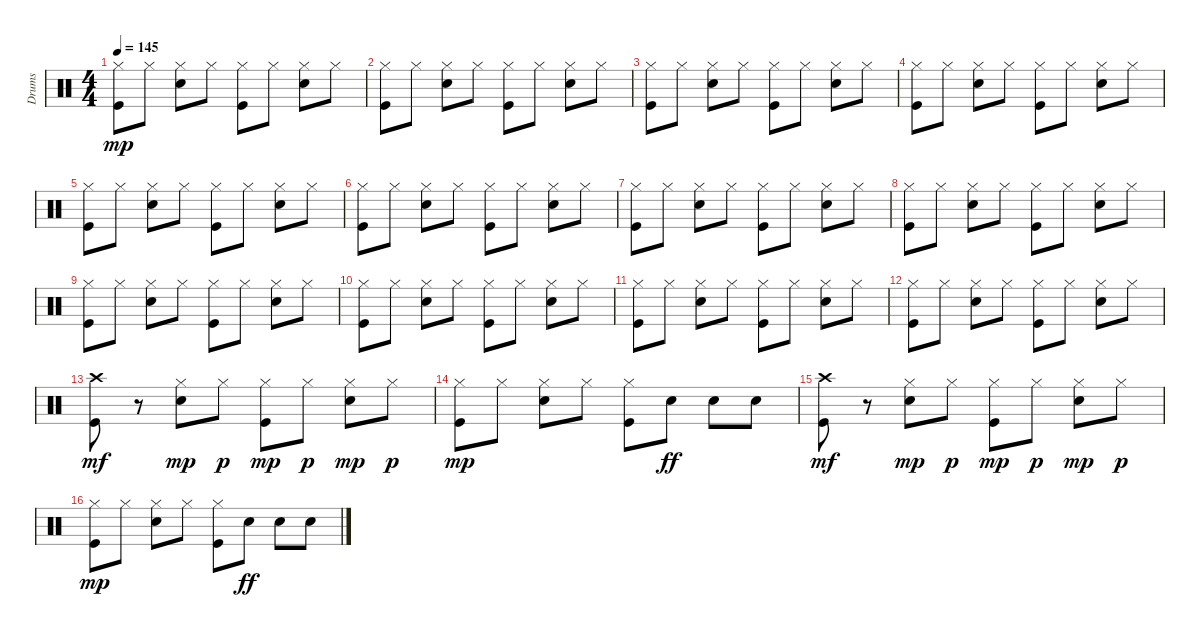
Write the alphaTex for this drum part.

\track ("Drums" "Drums") {instrument percussion}
\staff {score}
\articulation defaults
\ts (4 4)
\tempo 145
\clef neutral
\ks c
("Kick (hit)" "Hi-Hat (closed)").8{dy mp} "Hi-Hat (closed)".8 ("Snare (hit) 2" "Hi-Hat (closed)").8 "Hi-Hat (closed)".8 ("Kick (hit)" "Hi-Hat (closed)").8 "Hi-Hat (closed)".8 ("Snare (hit) 2" "Hi-Hat (closed)").8 "Hi-Hat (closed)".8 |
("Kick (hit)" "Hi-Hat (closed)").8 "Hi-Hat (closed)".8 ("Snare (hit) 2" "Hi-Hat (closed)").8 "Hi-Hat (closed)".8 ("Kick (hit)" "Hi-Hat (closed)").8 "Hi-Hat (closed)".8 ("Snare (hit) 2" "Hi-Hat (closed)").8 "Hi-Hat (closed)".8 |
("Kick (hit)" "Hi-Hat (closed)").8 "Hi-Hat (closed)".8 ("Snare (hit) 2" "Hi-Hat (closed)").8 "Hi-Hat (closed)".8 ("Kick (hit)" "Hi-Hat (closed)").8 "Hi-Hat (closed)".8 ("Snare (hit) 2" "Hi-Hat (closed)").8 "Hi-Hat (closed)".8 |
("Kick (hit)" "Hi-Hat (closed)").8 "Hi-Hat (closed)".8 ("Snare (hit) 2" "Hi-Hat (closed)").8 "Hi-Hat (closed)".8 ("Kick (hit)" "Hi-Hat (closed)").8 "Hi-Hat (closed)".8 ("Snare (hit) 2" "Hi-Hat (closed)").8 "Hi-Hat (closed)".8 |
("Kick (hit)" "Hi-Hat (closed)").8 "Hi-Hat (closed)".8 ("Snare (hit) 2" "Hi-Hat (closed)").8 "Hi-Hat (closed)".8 ("Kick (hit)" "Hi-Hat (closed)").8 "Hi-Hat (closed)".8 ("Snare (hit) 2" "Hi-Hat (closed)").8 "Hi-Hat (closed)".8 |
("Kick (hit)" "Hi-Hat (closed)").8 "Hi-Hat (closed)".8 ("Snare (hit) 2" "Hi-Hat (closed)").8 "Hi-Hat (closed)".8 ("Kick (hit)" "Hi-Hat (closed)").8 "Hi-Hat (closed)".8 ("Snare (hit) 2" "Hi-Hat (closed)").8 "Hi-Hat (closed)".8 |
("Kick (hit)" "Hi-Hat (closed)").8 "Hi-Hat (closed)".8 ("Snare (hit) 2" "Hi-Hat (closed)").8 "Hi-Hat (closed)".8 ("Kick (hit)" "Hi-Hat (closed)").8 "Hi-Hat (closed)".8 ("Snare (hit) 2" "Hi-Hat (closed)").8 "Hi-Hat (closed)".8 |
("Kick (hit)" "Hi-Hat (closed)").8 "Hi-Hat (closed)".8 ("Snare (hit) 2" "Hi-Hat (closed)").8 "Hi-Hat (closed)".8 ("Kick (hit)" "Hi-Hat (closed)").8 "Hi-Hat (closed)".8 ("Snare (hit) 2" "Hi-Hat (closed)").8 "Hi-Hat (closed)".8 |
("Kick (hit)" "Hi-Hat (closed)").8 "Hi-Hat (closed)".8 ("Snare (hit) 2" "Hi-Hat (closed)").8 "Hi-Hat (closed)".8 ("Kick (hit)" "Hi-Hat (closed)").8 "Hi-Hat (closed)".8 ("Snare (hit) 2" "Hi-Hat (closed)").8 "Hi-Hat (closed)".8 |
("Kick (hit)" "Hi-Hat (closed)").8 "Hi-Hat (closed)".8 ("Snare (hit) 2" "Hi-Hat (closed)").8 "Hi-Hat (closed)".8 ("Kick (hit)" "Hi-Hat (closed)").8 "Hi-Hat (closed)".8 ("Snare (hit) 2" "Hi-Hat (closed)").8 "Hi-Hat (closed)".8 |
("Kick (hit)" "Hi-Hat (closed)").8 "Hi-Hat (closed)".8 ("Snare (hit) 2" "Hi-Hat (closed)").8 "Hi-Hat (closed)".8 ("Kick (hit)" "Hi-Hat (closed)").8 "Hi-Hat (closed)".8 ("Snare (hit) 2" "Hi-Hat (closed)").8 "Hi-Hat (closed)".8 |
("Kick (hit)" "Hi-Hat (closed)").8 "Hi-Hat (closed)".8 ("Snare (hit) 2" "Hi-Hat (closed)").8 "Hi-Hat (closed)".8 ("Kick (hit)" "Hi-Hat (closed)").8 "Hi-Hat (closed)".8 ("Snare (hit) 2" "Hi-Hat (closed)").8 "Hi-Hat (closed)".8 |
("Kick (hit)" "Crash high (hit)").8{dy mf} r.8 ("Snare (hit) 2" "Hi-Hat (closed)").8{dy mp} "Hi-Hat (closed)".8{dy p} ("Kick (hit)" "Hi-Hat (closed)").8{dy mp} "Hi-Hat (closed)".8{dy p} ("Snare (hit) 2" "Hi-Hat (closed)").8{dy mp} "Hi-Hat (closed)".8{dy p} |
("Kick (hit)" "Hi-Hat (closed)").8{dy mp} "Hi-Hat (closed)".8 ("Snare (hit) 2" "Hi-Hat (closed)").8 "Hi-Hat (closed)".8 ("Kick (hit)" "Hi-Hat (closed)").8 "Snare (hit) 2".8{dy ff} "Snare (hit) 2".8 "Snare (hit) 2".8 |
("Kick (hit)" "Crash high (hit)").8{dy mf} r.8 ("Snare (hit) 2" "Hi-Hat (closed)").8{dy mp} "Hi-Hat (closed)".8{dy p} ("Kick (hit)" "Hi-Hat (closed)").8{dy mp} "Hi-Hat (closed)".8{dy p} ("Snare (hit) 2" "Hi-Hat (closed)").8{dy mp} "Hi-Hat (closed)".8{dy p} |
("Kick (hit)" "Hi-Hat (closed)").8{dy mp} "Hi-Hat (closed)".8 ("Snare (hit) 2" "Hi-Hat (closed)").8 "Hi-Hat (closed)".8 ("Kick (hit)" "Hi-Hat (closed)").8 "Snare (hit) 2".8{dy ff} "Snare (hit) 2".8 "Snare (hit) 2".8
